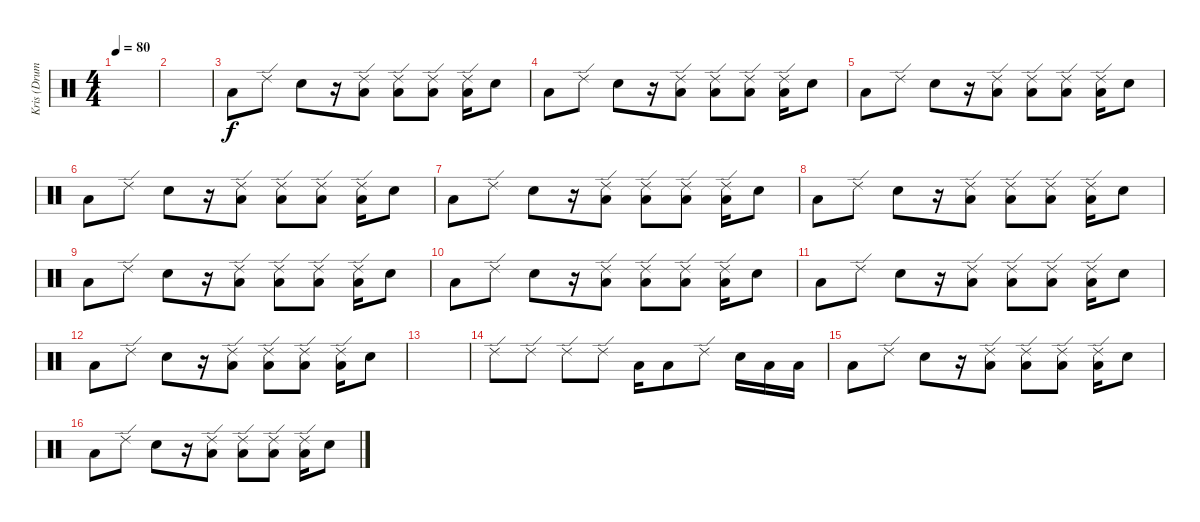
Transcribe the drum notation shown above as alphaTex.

\track ("Kris (Drums)" "Kris (Drum") {instrument percussion}
\staff {score}
\articulation defaults
\ts (4 4)
\tempo 80
\clef neutral
\ks c
|
|
"Low Tom (hit)".8 "Ride (edge) 2".8 "Metronome (bell)".8 r.16 ("Ride (edge) 2" "Low Tom (hit)").8 ("Ride (edge) 2" "Low Tom (hit)").8 ("Ride (edge) 2" "Low Tom (hit)").8 ("Ride (edge) 2" "Low Tom (hit)").16 "Metronome (bell)".8 |
"Low Tom (hit)".8 "Ride (edge) 2".8 "Metronome (bell)".8 r.16 ("Ride (edge) 2" "Low Tom (hit)").8 ("Ride (edge) 2" "Low Tom (hit)").8 ("Ride (edge) 2" "Low Tom (hit)").8 ("Ride (edge) 2" "Low Tom (hit)").16 "Metronome (bell)".8 |
"Low Tom (hit)".8 "Ride (edge) 2".8 "Metronome (bell)".8 r.16 ("Ride (edge) 2" "Low Tom (hit)").8 ("Ride (edge) 2" "Low Tom (hit)").8 ("Ride (edge) 2" "Low Tom (hit)").8 ("Ride (edge) 2" "Low Tom (hit)").16 "Metronome (bell)".8 |
"Low Tom (hit)".8 "Ride (edge) 2".8 "Metronome (bell)".8 r.16 ("Ride (edge) 2" "Low Tom (hit)").8 ("Ride (edge) 2" "Low Tom (hit)").8 ("Ride (edge) 2" "Low Tom (hit)").8 ("Ride (edge) 2" "Low Tom (hit)").16 "Metronome (bell)".8 |
"Low Tom (hit)".8 "Ride (edge) 2".8 "Metronome (bell)".8 r.16 ("Ride (edge) 2" "Low Tom (hit)").8 ("Ride (edge) 2" "Low Tom (hit)").8 ("Ride (edge) 2" "Low Tom (hit)").8 ("Ride (edge) 2" "Low Tom (hit)").16 "Metronome (bell)".8 |
"Low Tom (hit)".8 "Ride (edge) 2".8 "Metronome (bell)".8 r.16 ("Ride (edge) 2" "Low Tom (hit)").8 ("Ride (edge) 2" "Low Tom (hit)").8 ("Ride (edge) 2" "Low Tom (hit)").8 ("Ride (edge) 2" "Low Tom (hit)").16 "Metronome (bell)".8 |
"Low Tom (hit)".8 "Ride (edge) 2".8 "Metronome (bell)".8 r.16 ("Ride (edge) 2" "Low Tom (hit)").8 ("Ride (edge) 2" "Low Tom (hit)").8 ("Ride (edge) 2" "Low Tom (hit)").8 ("Ride (edge) 2" "Low Tom (hit)").16 "Metronome (bell)".8 |
"Low Tom (hit)".8 "Ride (edge) 2".8 "Metronome (bell)".8 r.16 ("Ride (edge) 2" "Low Tom (hit)").8 ("Ride (edge) 2" "Low Tom (hit)").8 ("Ride (edge) 2" "Low Tom (hit)").8 ("Ride (edge) 2" "Low Tom (hit)").16 "Metronome (bell)".8 |
"Low Tom (hit)".8 "Ride (edge) 2".8 "Metronome (bell)".8 r.16 ("Ride (edge) 2" "Low Tom (hit)").8 ("Ride (edge) 2" "Low Tom (hit)").8 ("Ride (edge) 2" "Low Tom (hit)").8 ("Ride (edge) 2" "Low Tom (hit)").16 "Metronome (bell)".8 |
"Low Tom (hit)".8 "Ride (edge) 2".8 "Metronome (bell)".8 r.16 ("Ride (edge) 2" "Low Tom (hit)").8 ("Ride (edge) 2" "Low Tom (hit)").8 ("Ride (edge) 2" "Low Tom (hit)").8 ("Ride (edge) 2" "Low Tom (hit)").16 "Metronome (bell)".8 |
|
"Ride (edge) 2".8 "Ride (edge) 2".8 "Ride (edge) 2".8 "Ride (edge) 2".8 "Low Tom (hit)".16 "Low Tom (hit)".8 "Ride (edge) 2".8 "Metronome (bell)".16 "Low Tom (hit)".16 "Low Tom (hit)".16 |
"Low Tom (hit)".8 "Ride (edge) 2".8 "Metronome (bell)".8 r.16 ("Ride (edge) 2" "Low Tom (hit)").8 ("Ride (edge) 2" "Low Tom (hit)").8 ("Ride (edge) 2" "Low Tom (hit)").8 ("Ride (edge) 2" "Low Tom (hit)").16 "Metronome (bell)".8 |
"Low Tom (hit)".8 "Ride (edge) 2".8 "Metronome (bell)".8 r.16 ("Ride (edge) 2" "Low Tom (hit)").8 ("Ride (edge) 2" "Low Tom (hit)").8 ("Ride (edge) 2" "Low Tom (hit)").8 ("Ride (edge) 2" "Low Tom (hit)").16 "Metronome (bell)".8
